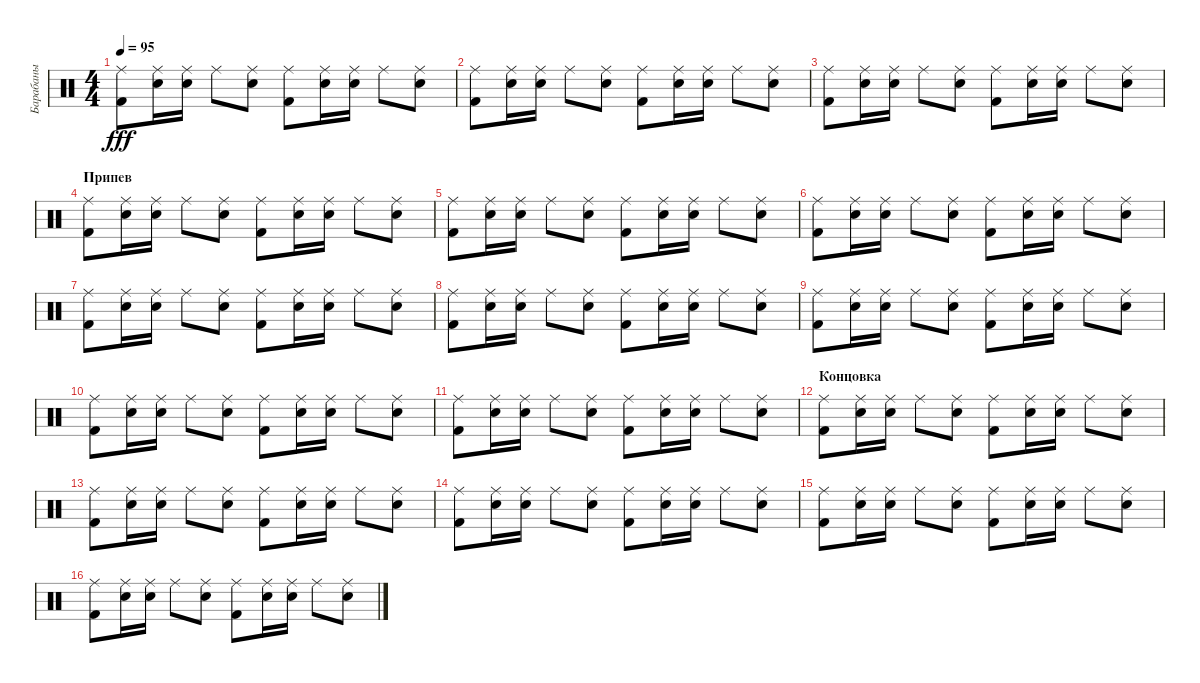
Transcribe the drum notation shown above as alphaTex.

\track ("Барабаны" "Барабаны") {instrument percussion}
\staff {score}
\articulation defaults
\ts (4 4)
\tempo 95
\clef neutral
\ks c
("Kick (hit) 2" "Ride (middle)").8{dy fff} ("Snare (hit) 2" "Ride (middle)").16 ("Snare (hit) 2" "Ride (middle)").16 "Ride (middle)".8 ("Snare (hit) 2" "Ride (middle)").8 ("Kick (hit) 2" "Ride (middle)").8 ("Snare (hit) 2" "Ride (middle)").16 ("Snare (hit) 2" "Ride (middle)").16 "Ride (middle)".8 ("Snare (hit) 2" "Ride (middle)").8 |
("Kick (hit) 2" "Ride (middle)").8 ("Snare (hit) 2" "Ride (middle)").16 ("Snare (hit) 2" "Ride (middle)").16 "Ride (middle)".8 ("Snare (hit) 2" "Ride (middle)").8 ("Kick (hit) 2" "Ride (middle)").8 ("Snare (hit) 2" "Ride (middle)").16 ("Snare (hit) 2" "Ride (middle)").16 "Ride (middle)".8 ("Snare (hit) 2" "Ride (middle)").8 |
("Kick (hit) 2" "Ride (middle)").8 ("Snare (hit) 2" "Ride (middle)").16 ("Snare (hit) 2" "Ride (middle)").16 "Ride (middle)".8 ("Snare (hit) 2" "Ride (middle)").8 ("Kick (hit) 2" "Ride (middle)").8 ("Snare (hit) 2" "Ride (middle)").16 ("Snare (hit) 2" "Ride (middle)").16 "Ride (middle)".8 ("Snare (hit) 2" "Ride (middle)").8 |
\section ("" "Припев")
("Kick (hit) 2" "Ride (middle)").8 ("Snare (hit) 2" "Ride (middle)").16 ("Snare (hit) 2" "Ride (middle)").16 "Ride (middle)".8 ("Snare (hit) 2" "Ride (middle)").8 ("Kick (hit) 2" "Ride (middle)").8 ("Snare (hit) 2" "Ride (middle)").16 ("Snare (hit) 2" "Ride (middle)").16 "Ride (middle)".8 ("Snare (hit) 2" "Ride (middle)").8 |
("Kick (hit) 2" "Ride (middle)").8 ("Snare (hit) 2" "Ride (middle)").16 ("Snare (hit) 2" "Ride (middle)").16 "Ride (middle)".8 ("Snare (hit) 2" "Ride (middle)").8 ("Kick (hit) 2" "Ride (middle)").8 ("Snare (hit) 2" "Ride (middle)").16 ("Snare (hit) 2" "Ride (middle)").16 "Ride (middle)".8 ("Snare (hit) 2" "Ride (middle)").8 |
("Kick (hit) 2" "Ride (middle)").8 ("Snare (hit) 2" "Ride (middle)").16 ("Snare (hit) 2" "Ride (middle)").16 "Ride (middle)".8 ("Snare (hit) 2" "Ride (middle)").8 ("Kick (hit) 2" "Ride (middle)").8 ("Snare (hit) 2" "Ride (middle)").16 ("Snare (hit) 2" "Ride (middle)").16 "Ride (middle)".8 ("Snare (hit) 2" "Ride (middle)").8 |
("Kick (hit) 2" "Ride (middle)").8 ("Snare (hit) 2" "Ride (middle)").16 ("Snare (hit) 2" "Ride (middle)").16 "Ride (middle)".8 ("Snare (hit) 2" "Ride (middle)").8 ("Kick (hit) 2" "Ride (middle)").8 ("Snare (hit) 2" "Ride (middle)").16 ("Snare (hit) 2" "Ride (middle)").16 "Ride (middle)".8 ("Snare (hit) 2" "Ride (middle)").8 |
("Kick (hit) 2" "Ride (middle)").8 ("Snare (hit) 2" "Ride (middle)").16 ("Snare (hit) 2" "Ride (middle)").16 "Ride (middle)".8 ("Snare (hit) 2" "Ride (middle)").8 ("Kick (hit) 2" "Ride (middle)").8 ("Snare (hit) 2" "Ride (middle)").16 ("Snare (hit) 2" "Ride (middle)").16 "Ride (middle)".8 ("Snare (hit) 2" "Ride (middle)").8 |
("Kick (hit) 2" "Ride (middle)").8 ("Snare (hit) 2" "Ride (middle)").16 ("Snare (hit) 2" "Ride (middle)").16 "Ride (middle)".8 ("Snare (hit) 2" "Ride (middle)").8 ("Kick (hit) 2" "Ride (middle)").8 ("Snare (hit) 2" "Ride (middle)").16 ("Snare (hit) 2" "Ride (middle)").16 "Ride (middle)".8 ("Snare (hit) 2" "Ride (middle)").8 |
("Kick (hit) 2" "Ride (middle)").8 ("Snare (hit) 2" "Ride (middle)").16 ("Snare (hit) 2" "Ride (middle)").16 "Ride (middle)".8 ("Snare (hit) 2" "Ride (middle)").8 ("Kick (hit) 2" "Ride (middle)").8 ("Snare (hit) 2" "Ride (middle)").16 ("Snare (hit) 2" "Ride (middle)").16 "Ride (middle)".8 ("Snare (hit) 2" "Ride (middle)").8 |
("Kick (hit) 2" "Ride (middle)").8 ("Snare (hit) 2" "Ride (middle)").16 ("Snare (hit) 2" "Ride (middle)").16 "Ride (middle)".8 ("Snare (hit) 2" "Ride (middle)").8 ("Kick (hit) 2" "Ride (middle)").8 ("Snare (hit) 2" "Ride (middle)").16 ("Snare (hit) 2" "Ride (middle)").16 "Ride (middle)".8 ("Snare (hit) 2" "Ride (middle)").8 |
\section ("" "Концовка")
("Kick (hit) 2" "Ride (middle)").8 ("Snare (hit) 2" "Ride (middle)").16 ("Snare (hit) 2" "Ride (middle)").16 "Ride (middle)".8 ("Snare (hit) 2" "Ride (middle)").8 ("Kick (hit) 2" "Ride (middle)").8 ("Snare (hit) 2" "Ride (middle)").16 ("Snare (hit) 2" "Ride (middle)").16 "Ride (middle)".8 ("Snare (hit) 2" "Ride (middle)").8 |
("Kick (hit) 2" "Ride (middle)").8 ("Snare (hit) 2" "Ride (middle)").16 ("Snare (hit) 2" "Ride (middle)").16 "Ride (middle)".8 ("Snare (hit) 2" "Ride (middle)").8 ("Kick (hit) 2" "Ride (middle)").8 ("Snare (hit) 2" "Ride (middle)").16 ("Snare (hit) 2" "Ride (middle)").16 "Ride (middle)".8 ("Snare (hit) 2" "Ride (middle)").8 |
("Kick (hit) 2" "Ride (middle)").8 ("Snare (hit) 2" "Ride (middle)").16 ("Snare (hit) 2" "Ride (middle)").16 "Ride (middle)".8 ("Snare (hit) 2" "Ride (middle)").8 ("Kick (hit) 2" "Ride (middle)").8 ("Snare (hit) 2" "Ride (middle)").16 ("Snare (hit) 2" "Ride (middle)").16 "Ride (middle)".8 ("Snare (hit) 2" "Ride (middle)").8 |
("Kick (hit) 2" "Ride (middle)").8 ("Snare (hit) 2" "Ride (middle)").16 ("Snare (hit) 2" "Ride (middle)").16 "Ride (middle)".8 ("Snare (hit) 2" "Ride (middle)").8 ("Kick (hit) 2" "Ride (middle)").8 ("Snare (hit) 2" "Ride (middle)").16 ("Snare (hit) 2" "Ride (middle)").16 "Ride (middle)".8 ("Snare (hit) 2" "Ride (middle)").8 |
("Kick (hit) 2" "Ride (middle)").8 ("Snare (hit) 2" "Ride (middle)").16 ("Snare (hit) 2" "Ride (middle)").16 "Ride (middle)".8 ("Snare (hit) 2" "Ride (middle)").8 ("Kick (hit) 2" "Ride (middle)").8 ("Snare (hit) 2" "Ride (middle)").16 ("Snare (hit) 2" "Ride (middle)").16 "Ride (middle)".8 ("Snare (hit) 2" "Ride (middle)").8
